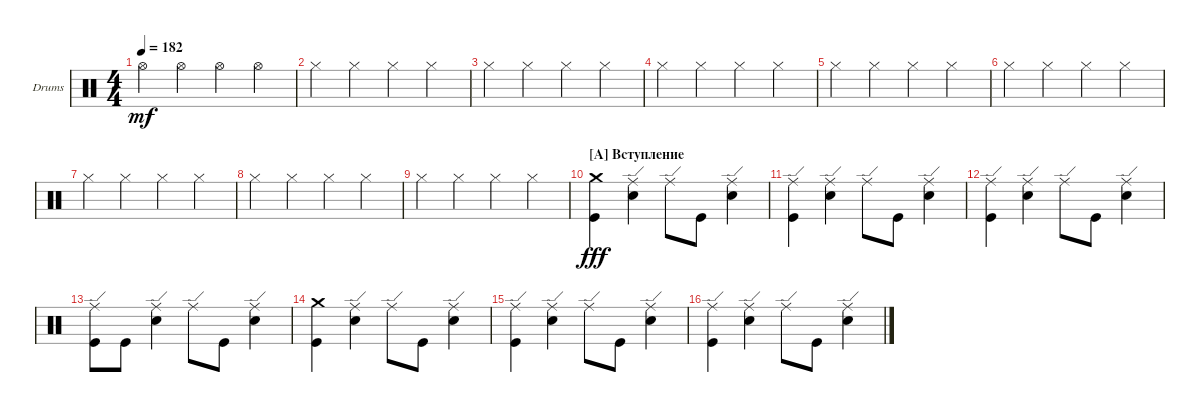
\defaultSystemsLayout 4
\bracketExtendMode groupsimilarinstruments
\firstSystemTrackNameOrientation horizontal
\otherSystemsTrackNameOrientation horizontal
\track ("Drumkit" "Drums") {instrument percussion}
\staff {score}
\articulation defaults
\ts (4 4)
\tempo 182
\clef neutral
\ks c "Hi-Hat (open)".4{dy mf} "Hi-Hat (open)".4 "Hi-Hat (open)".4 "Hi-Hat (open)".4
|
"Hi-Hat (closed)".4 "Hi-Hat (closed)".4 "Hi-Hat (closed)".4 "Hi-Hat (closed)".4 |
"Hi-Hat (closed)".4 "Hi-Hat (closed)".4 "Hi-Hat (closed)".4 "Hi-Hat (closed)".4 |
"Hi-Hat (closed)".4 "Hi-Hat (closed)".4 "Hi-Hat (closed)".4 "Hi-Hat (closed)".4 |
"Hi-Hat (closed)".4 "Hi-Hat (closed)".4 "Hi-Hat (closed)".4 "Hi-Hat (closed)".4 |
"Hi-Hat (closed)".4 "Hi-Hat (closed)".4 "Hi-Hat (closed)".4 "Hi-Hat (closed)".4 |
"Hi-Hat (closed)".4 "Hi-Hat (closed)".4 "Hi-Hat (closed)".4 "Hi-Hat (closed)".4 |
"Hi-Hat (closed)".4 "Hi-Hat (closed)".4 "Hi-Hat (closed)".4 "Hi-Hat (closed)".4 |
"Hi-Hat (closed)".4 "Hi-Hat (closed)".4 "Hi-Hat (closed)".4 "Hi-Hat (closed)".4 |
\section ("A" "Вступление")
("Kick (hit)" "Crash medium (hit)").4{dy fff} ("Snare (hit) 2" "Ride (edge)").4 "Ride (edge)".8 "Kick (hit)".8 ("Snare (hit) 2" "Ride (edge)").4 |
("Kick (hit)" "Ride (edge)").4 ("Snare (hit) 2" "Ride (edge)").4 "Ride (edge)".8 "Kick (hit)".8 ("Snare (hit) 2" "Ride (edge)").4 |
("Kick (hit)" "Ride (edge)").4 ("Snare (hit) 2" "Ride (edge)").4 "Ride (edge)".8 "Kick (hit)".8 ("Snare (hit) 2" "Ride (edge)").4 |
("Kick (hit)" "Ride (edge)").8 "Kick (hit)".8 ("Snare (hit) 2" "Ride (edge)").4 "Ride (edge)".8 "Kick (hit)".8 ("Snare (hit) 2" "Ride (edge)").4 |
("Kick (hit)" "Crash medium (hit)").4 ("Snare (hit) 2" "Ride (edge)").4 "Ride (edge)".8 "Kick (hit)".8 ("Snare (hit) 2" "Ride (edge)").4 |
("Kick (hit)" "Ride (edge)").4 ("Snare (hit) 2" "Ride (edge)").4 "Ride (edge)".8 "Kick (hit)".8 ("Snare (hit) 2" "Ride (edge)").4 |
("Kick (hit)" "Ride (edge)").4 ("Snare (hit) 2" "Ride (edge)").4 "Ride (edge)".8 "Kick (hit)".8 ("Snare (hit) 2" "Ride (edge)").4
